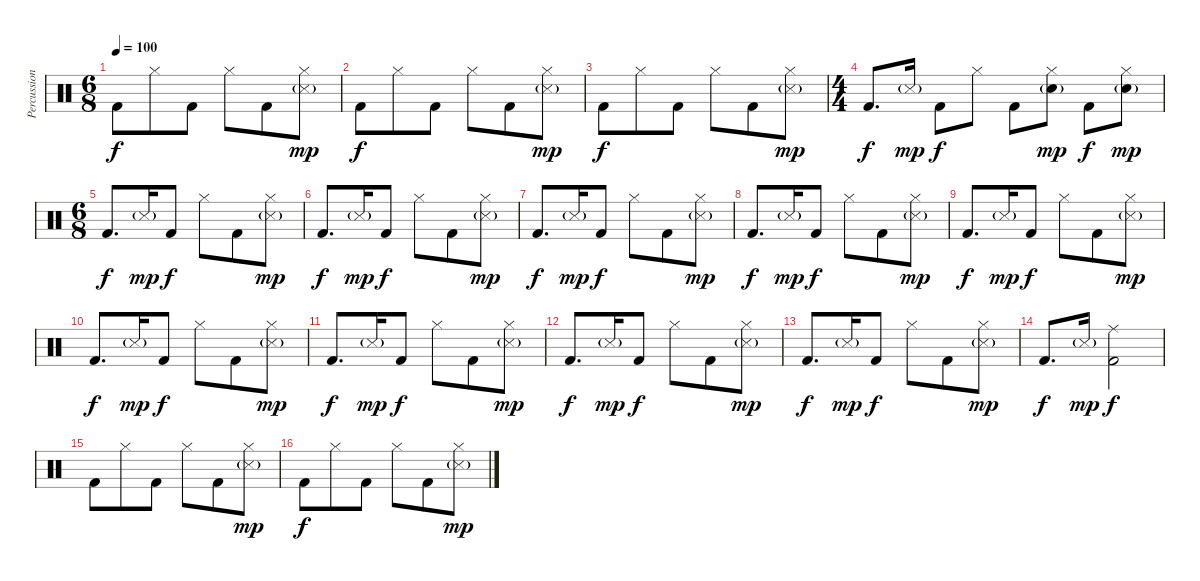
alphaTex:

\track ("Percussion" "Percussion") {instrument percussion}
\staff {score}
\articulation defaults
\ts (6 8)
\tempo 100
\clef neutral
\ks c "Kick (hit) 2".8{dy f} "Hi-Hat (closed)".8 "Kick (hit) 2".8 "Hi-Hat (closed)".8 "Kick (hit) 2".8
("Hi-Hat (closed)" "Snare (side stick) 3"{g}).8{dy mp} |
"Kick (hit) 2".8{dy f} "Hi-Hat (closed)".8 "Kick (hit) 2".8 "Hi-Hat (closed)".8 "Kick (hit) 2".8 ("Hi-Hat (closed)" "Snare (side stick) 3"{g}).8{dy mp} |
"Kick (hit) 2".8{dy f} "Hi-Hat (closed)".8 "Kick (hit) 2".8 "Hi-Hat (closed)".8 "Kick (hit) 2".8 ("Hi-Hat (closed)" "Snare (side stick) 3"{g}).8{dy mp} |
\ts (4 4)
"Kick (hit) 2".8{d dy f} "Snare (side stick) 3"{g}.16{dy mp} "Kick (hit) 2".8{dy f} "Hi-Hat (closed)".8 "Kick (hit) 2".8 ("Hi-Hat (closed)" "Snare (hit) 2"{g}).8{dy mp} "Kick (hit) 2".8{dy f} ("Hi-Hat (closed)" "Snare (hit) 2"{g}).8{dy mp} |
\ts (6 8)
"Kick (hit) 2".8{d dy f} "Snare (side stick) 3"{g}.16{dy mp} "Kick (hit) 2".8{dy f} "Hi-Hat (closed)".8 "Kick (hit) 2".8 ("Hi-Hat (closed)" "Snare (side stick) 3"{g}).8{dy mp} |
"Kick (hit) 2".8{d dy f} "Snare (side stick) 3"{g}.16{dy mp} "Kick (hit) 2".8{dy f} "Hi-Hat (closed)".8 "Kick (hit) 2".8 ("Hi-Hat (closed)" "Snare (side stick) 3"{g}).8{dy mp} |
"Kick (hit) 2".8{d dy f} "Snare (side stick) 3"{g}.16{dy mp} "Kick (hit) 2".8{dy f} "Hi-Hat (closed)".8 "Kick (hit) 2".8 ("Hi-Hat (closed)" "Snare (side stick) 3"{g}).8{dy mp} |
"Kick (hit) 2".8{d dy f} "Snare (side stick) 3"{g}.16{dy mp} "Kick (hit) 2".8{dy f} "Hi-Hat (closed)".8 "Kick (hit) 2".8 ("Hi-Hat (closed)" "Snare (side stick) 3"{g}).8{dy mp} |
"Kick (hit) 2".8{d dy f} "Snare (side stick) 3"{g}.16{dy mp} "Kick (hit) 2".8{dy f} "Hi-Hat (closed)".8 "Kick (hit) 2".8 ("Hi-Hat (closed)" "Snare (side stick) 3"{g}).8{dy mp} |
"Kick (hit) 2".8{d dy f} "Snare (side stick) 3"{g}.16{dy mp} "Kick (hit) 2".8{dy f} "Hi-Hat (closed)".8 "Kick (hit) 2".8 ("Hi-Hat (closed)" "Snare (side stick) 3"{g}).8{dy mp} |
"Kick (hit) 2".8{d dy f} "Snare (side stick) 3"{g}.16{dy mp} "Kick (hit) 2".8{dy f} "Hi-Hat (closed)".8 "Kick (hit) 2".8 ("Hi-Hat (closed)" "Snare (side stick) 3"{g}).8{dy mp} |
"Kick (hit) 2".8{d dy f} "Snare (side stick) 3"{g}.16{dy mp} "Kick (hit) 2".8{dy f} "Hi-Hat (closed)".8 "Kick (hit) 2".8 ("Hi-Hat (closed)" "Snare (side stick) 3"{g}).8{dy mp} |
"Kick (hit) 2".8{d dy f} "Snare (side stick) 3"{g}.16{dy mp} "Kick (hit) 2".8{dy f} "Hi-Hat (closed)".8 "Kick (hit) 2".8 ("Hi-Hat (closed)" "Snare (side stick) 3"{g}).8{dy mp} |
"Kick (hit) 2".8{d dy f} "Snare (side stick) 3"{g}.16{dy mp} ("Ride (middle)" "Kick (hit) 2").2{dy f} |
"Kick (hit) 2".8 "Hi-Hat (closed)".8 "Kick (hit) 2".8 "Hi-Hat (closed)".8 "Kick (hit) 2".8 ("Hi-Hat (closed)" "Snare (side stick) 3"{g}).8{dy mp} |
"Kick (hit) 2".8{dy f} "Hi-Hat (closed)".8 "Kick (hit) 2".8 "Hi-Hat (closed)".8 "Kick (hit) 2".8 ("Hi-Hat (closed)" "Snare (side stick) 3"{g}).8{dy mp}
